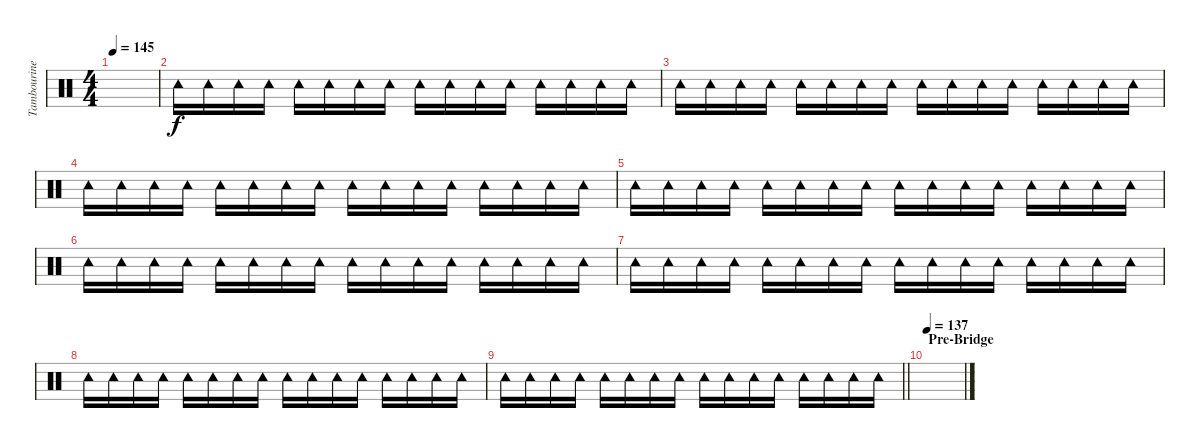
\track ("Tambourine" "Tambourine") {instrument percussion}
\staff {score}
\articulation defaults
\ts (4 4)
\tempo 145
\clef neutral
\ks c
|
"Tambourine (hit)".16 "Tambourine (hit)".16 "Tambourine (hit)".16 "Tambourine (hit)".16 "Tambourine (hit)".16 "Tambourine (hit)".16 "Tambourine (hit)".16 "Tambourine (hit)".16 "Tambourine (hit)".16 "Tambourine (hit)".16 "Tambourine (hit)".16 "Tambourine (hit)".16 "Tambourine (hit)".16 "Tambourine (hit)".16 "Tambourine (hit)".16 "Tambourine (hit)".16 |
"Tambourine (hit)".16 "Tambourine (hit)".16 "Tambourine (hit)".16 "Tambourine (hit)".16 "Tambourine (hit)".16 "Tambourine (hit)".16 "Tambourine (hit)".16 "Tambourine (hit)".16 "Tambourine (hit)".16 "Tambourine (hit)".16 "Tambourine (hit)".16 "Tambourine (hit)".16 "Tambourine (hit)".16 "Tambourine (hit)".16 "Tambourine (hit)".16 "Tambourine (hit)".16 |
"Tambourine (hit)".16 "Tambourine (hit)".16 "Tambourine (hit)".16 "Tambourine (hit)".16 "Tambourine (hit)".16 "Tambourine (hit)".16 "Tambourine (hit)".16 "Tambourine (hit)".16 "Tambourine (hit)".16 "Tambourine (hit)".16 "Tambourine (hit)".16 "Tambourine (hit)".16 "Tambourine (hit)".16 "Tambourine (hit)".16 "Tambourine (hit)".16 "Tambourine (hit)".16 |
"Tambourine (hit)".16 "Tambourine (hit)".16 "Tambourine (hit)".16 "Tambourine (hit)".16 "Tambourine (hit)".16 "Tambourine (hit)".16 "Tambourine (hit)".16 "Tambourine (hit)".16 "Tambourine (hit)".16 "Tambourine (hit)".16 "Tambourine (hit)".16 "Tambourine (hit)".16 "Tambourine (hit)".16 "Tambourine (hit)".16 "Tambourine (hit)".16 "Tambourine (hit)".16 |
"Tambourine (hit)".16 "Tambourine (hit)".16 "Tambourine (hit)".16 "Tambourine (hit)".16 "Tambourine (hit)".16 "Tambourine (hit)".16 "Tambourine (hit)".16 "Tambourine (hit)".16 "Tambourine (hit)".16 "Tambourine (hit)".16 "Tambourine (hit)".16 "Tambourine (hit)".16 "Tambourine (hit)".16 "Tambourine (hit)".16 "Tambourine (hit)".16 "Tambourine (hit)".16 |
"Tambourine (hit)".16 "Tambourine (hit)".16 "Tambourine (hit)".16 "Tambourine (hit)".16 "Tambourine (hit)".16 "Tambourine (hit)".16 "Tambourine (hit)".16 "Tambourine (hit)".16 "Tambourine (hit)".16 "Tambourine (hit)".16 "Tambourine (hit)".16 "Tambourine (hit)".16 "Tambourine (hit)".16 "Tambourine (hit)".16 "Tambourine (hit)".16 "Tambourine (hit)".16 |
"Tambourine (hit)".16 "Tambourine (hit)".16 "Tambourine (hit)".16 "Tambourine (hit)".16 "Tambourine (hit)".16 "Tambourine (hit)".16 "Tambourine (hit)".16 "Tambourine (hit)".16 "Tambourine (hit)".16 "Tambourine (hit)".16 "Tambourine (hit)".16 "Tambourine (hit)".16 "Tambourine (hit)".16 "Tambourine (hit)".16 "Tambourine (hit)".16 "Tambourine (hit)".16 |
\barLineRight lightlight "Tambourine (hit)".16 "Tambourine (hit)".16 "Tambourine (hit)".16 "Tambourine (hit)".16 "Tambourine (hit)".16 "Tambourine (hit)".16 "Tambourine (hit)".16 "Tambourine (hit)".16 "Tambourine (hit)".16 "Tambourine (hit)".16 "Tambourine (hit)".16 "Tambourine (hit)".16 "Tambourine (hit)".16 "Tambourine (hit)".16 "Tambourine (hit)".16 "Tambourine (hit)".16
|
\section ("" "Pre-Bridge")
\tempo 137
